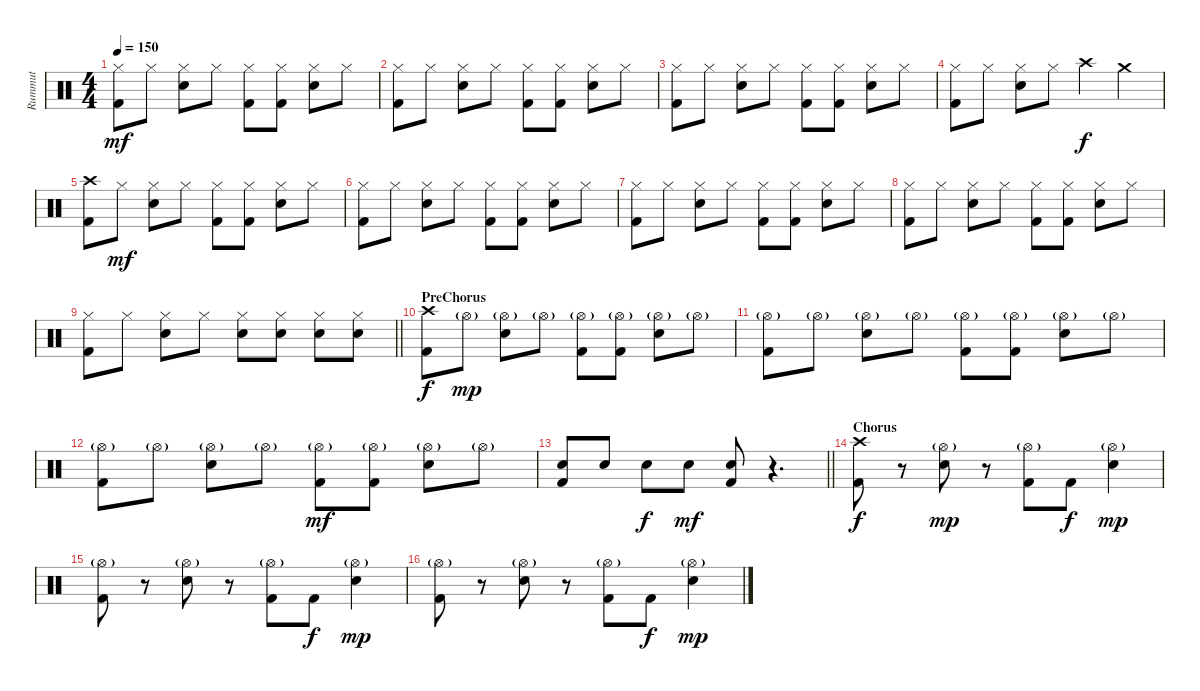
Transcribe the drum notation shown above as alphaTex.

\track ("Rummut" "Rummut") {instrument percussion bank 69}
\staff {score}
\articulation defaults
\ts (4 4)
\tempo 150
\clef neutral
\ks c
("Hi-Hat (closed)" "Kick (hit) 2").8{dy mf} "Hi-Hat (closed)".8 ("Hi-Hat (closed)" "Snare (hit) 2").8 "Hi-Hat (closed)".8 ("Hi-Hat (closed)" "Kick (hit) 2").8 ("Hi-Hat (closed)" "Kick (hit) 2").8 ("Hi-Hat (closed)" "Snare (hit) 2").8 "Hi-Hat (closed)".8 |
("Hi-Hat (closed)" "Kick (hit) 2").8 "Hi-Hat (closed)".8 ("Hi-Hat (closed)" "Snare (hit) 2").8 "Hi-Hat (closed)".8 ("Hi-Hat (closed)" "Kick (hit) 2").8 ("Hi-Hat (closed)" "Kick (hit) 2").8 ("Hi-Hat (closed)" "Snare (hit) 2").8 "Hi-Hat (closed)".8 |
("Hi-Hat (closed)" "Kick (hit) 2").8 "Hi-Hat (closed)".8 ("Hi-Hat (closed)" "Snare (hit) 2").8 "Hi-Hat (closed)".8 ("Hi-Hat (closed)" "Kick (hit) 2").8 ("Hi-Hat (closed)" "Kick (hit) 2").8 ("Hi-Hat (closed)" "Snare (hit) 2").8 "Hi-Hat (closed)".8 |
("Hi-Hat (closed)" "Kick (hit) 2").8 "Hi-Hat (closed)".8 ("Hi-Hat (closed)" "Snare (hit) 2").8 "Hi-Hat (closed)".8 "Crash high (hit)".4{dy f} "Crash medium (hit)".4 |
("Crash high (hit)" "Kick (hit) 2").8 "Hi-Hat (closed)".8{dy mf} ("Hi-Hat (closed)" "Snare (hit) 2").8 "Hi-Hat (closed)".8 ("Hi-Hat (closed)" "Kick (hit) 2").8 ("Hi-Hat (closed)" "Kick (hit) 2").8 ("Hi-Hat (closed)" "Snare (hit) 2").8 "Hi-Hat (closed)".8 |
("Hi-Hat (closed)" "Kick (hit) 2").8 "Hi-Hat (closed)".8 ("Hi-Hat (closed)" "Snare (hit) 2").8 "Hi-Hat (closed)".8 ("Hi-Hat (closed)" "Kick (hit) 2").8 ("Hi-Hat (closed)" "Kick (hit) 2").8 ("Hi-Hat (closed)" "Snare (hit) 2").8 "Hi-Hat (closed)".8 |
("Hi-Hat (closed)" "Kick (hit) 2").8 "Hi-Hat (closed)".8 ("Hi-Hat (closed)" "Snare (hit) 2").8 "Hi-Hat (closed)".8 ("Hi-Hat (closed)" "Kick (hit) 2").8 ("Hi-Hat (closed)" "Kick (hit) 2").8 ("Hi-Hat (closed)" "Snare (hit) 2").8 "Hi-Hat (closed)".8 |
("Hi-Hat (closed)" "Kick (hit) 2").8 "Hi-Hat (closed)".8 ("Hi-Hat (closed)" "Snare (hit) 2").8 "Hi-Hat (closed)".8 ("Hi-Hat (closed)" "Kick (hit) 2").8 ("Hi-Hat (closed)" "Kick (hit) 2").8 ("Hi-Hat (closed)" "Snare (hit) 2").8 "Hi-Hat (closed)".8 |
\barLineRight lightlight
("Hi-Hat (closed)" "Kick (hit) 2").8 "Hi-Hat (closed)".8 ("Hi-Hat (closed)" "Snare (hit) 2").8 "Hi-Hat (closed)".8 ("Hi-Hat (closed)" "Snare (hit) 2").8 ("Hi-Hat (closed)" "Snare (hit) 2").8 ("Hi-Hat (closed)" "Snare (hit) 2").8 ("Hi-Hat (closed)" "Snare (hit) 2").8 |
\section ("" "PreChorus")
("Crash high (hit)" "Kick (hit) 2").8{dy f} "Hi-Hat (open)"{g}.8{dy mp} ("Hi-Hat (open)"{g} "Snare (hit) 2").8 "Hi-Hat (open)"{g}.8 ("Hi-Hat (open)"{g} "Kick (hit) 2").8 ("Hi-Hat (open)"{g} "Kick (hit) 2").8 ("Hi-Hat (open)"{g} "Snare (hit) 2").8 "Hi-Hat (open)"{g}.8 |
("Hi-Hat (open)"{g} "Kick (hit) 2").8 "Hi-Hat (open)"{g}.8 ("Hi-Hat (open)"{g} "Snare (hit) 2").8 "Hi-Hat (open)"{g}.8 ("Hi-Hat (open)"{g} "Kick (hit) 2").8 ("Hi-Hat (open)"{g} "Kick (hit) 2").8 ("Hi-Hat (open)"{g} "Snare (hit) 2").8 "Hi-Hat (open)"{g}.8 |
("Hi-Hat (open)"{g} "Kick (hit) 2").8 "Hi-Hat (open)"{g}.8 ("Hi-Hat (open)"{g} "Snare (hit) 2").8 "Hi-Hat (open)"{g}.8 ("Hi-Hat (open)"{g} "Kick (hit) 2").8{dy mf} ("Hi-Hat (open)"{g} "Kick (hit) 2").8 ("Hi-Hat (open)"{g} "Snare (hit) 2").8 "Hi-Hat (open)"{g}.8 |
\barLineRight lightlight
("Snare (hit) 2" "Kick (hit) 2").8 "Snare (hit) 2".8 "Snare (hit) 2".8{dy f} "Snare (hit) 2".8{dy mf} ("Snare (hit) 2" "Kick (hit) 2").8 r.4{d} |
\section ("" "Chorus")
("Crash high (hit)" "Kick (hit) 2").8{dy f} r.8 ("Hi-Hat (open)"{g} "Snare (hit) 2").8{dy mp} r.8 ("Hi-Hat (open)"{g} "Kick (hit) 2").8 "Kick (hit) 2".8{dy f} ("Hi-Hat (open)"{g} "Snare (hit) 2").4{dy mp} |
("Hi-Hat (open)"{g} "Kick (hit) 2").8 r.8 ("Hi-Hat (open)"{g} "Snare (hit) 2").8 r.8 ("Hi-Hat (open)"{g} "Kick (hit) 2").8 "Kick (hit) 2".8{dy f} ("Hi-Hat (open)"{g} "Snare (hit) 2").4{dy mp} |
("Hi-Hat (open)"{g} "Kick (hit) 2").8 r.8 ("Hi-Hat (open)"{g} "Snare (hit) 2").8 r.8 ("Hi-Hat (open)"{g} "Kick (hit) 2").8 "Kick (hit) 2".8{dy f} ("Hi-Hat (open)"{g} "Snare (hit) 2").4{dy mp}
